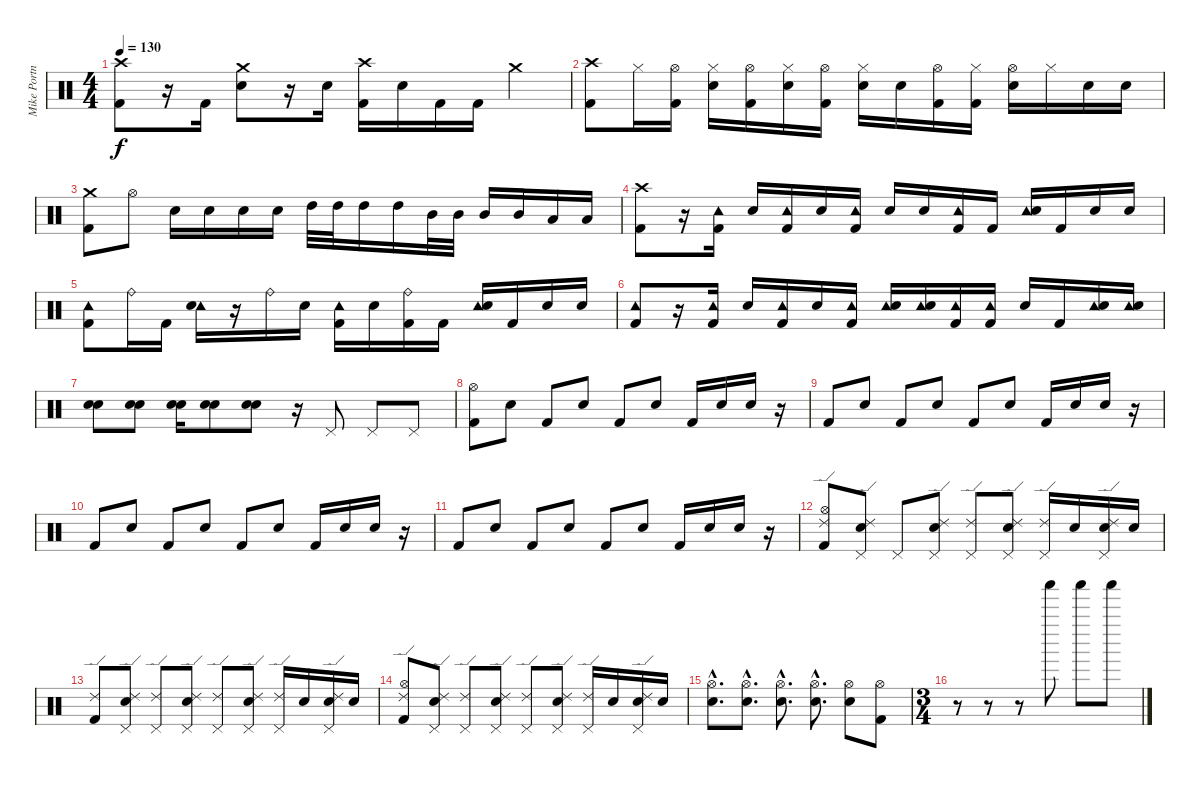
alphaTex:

\track ("Mike Portnoy Drums" "Mike Portn") {instrument percussion}
\staff {score}
\articulation defaults
\ts (4 4)
\tempo 130
\clef neutral
\ks c
("Crash high (hit)" "Kick (hit) 2").8{dy f} r.16 "Kick (hit) 2".16 ("Crash medium (hit)" "Snare (hit) 2").8 r.16 "Snare (hit) 2".16 ("Crash high (hit)" "Kick (hit) 2").16 "Snare (hit) 2".16 "Kick (hit) 2".16 "Kick (hit) 2".16 "Crash medium (hit)".4 |
("Crash high (hit)" "Kick (hit) 2").8 "Hi-Hat (closed)".16 ("Hi-Hat (open)" "Kick (hit) 2").16 ("Hi-Hat (closed)" "Snare (hit) 2").16 ("Hi-Hat (open)" "Kick (hit) 2").16 ("Hi-Hat (closed)" "Snare (hit) 2").16 ("Hi-Hat (open)" "Kick (hit) 2").16 ("Hi-Hat (closed)" "Snare (hit) 2").16 "Snare (hit) 2".16 ("Hi-Hat (open)" "Kick (hit) 2").16 ("Hi-Hat (closed)" "Kick (hit) 2").16 ("Hi-Hat (open)" "Snare (hit) 2").16 "Hi-Hat (closed)".16 "Snare (hit) 2".16 "Snare (hit) 2".16 |
("Crash medium (hit)" "Kick (hit) 2").8 "Hi-Hat (open)".8 "Snare (hit) 2".16 "Snare (hit) 2".16 "Snare (hit) 2".16 "Snare (hit) 2".16 "High Tom (hit)".32 "High Tom (hit)".32 "High Tom (hit)".16 "High Tom (hit)".16 "Mid Tom (hit)".32 "Mid Tom (hit)".32 "Mid Tom (hit)".16 "Mid Tom (hit)".16 "Low Tom (hit)".16 "Low Tom (hit)".16 |
("Crash high (hit)" "Kick (hit) 2").8 r.16 ("Tambourine (hit)" "Kick (hit) 2").16 "Snare (hit) 2".16 ("Tambourine (hit)" "Kick (hit) 2").16 "Snare (hit) 2".16 ("Tambourine (hit)" "Kick (hit) 2").16 "Snare (hit) 2".16 "Snare (hit) 2".16 ("Tambourine (hit)" "Kick (hit) 2").16 "Kick (hit) 2".16 ("Tambourine (hit)" "Snare (hit) 2").16 "Kick (hit) 2".16 "Snare (hit) 2".16 "Snare (hit) 2".16 |
("Tambourine (hit)" "Kick (hit) 2").8 "Ride (bell)".16 "Kick (hit) 2".16 ("Tambourine (hit)" "Snare (hit) 2").16 r.16 "Ride (bell)".16 "Snare (hit) 2".16 ("Tambourine (hit)" "Kick (hit) 2").16 "Snare (hit) 2".16 ("Ride (bell)" "Kick (hit) 2").16 "Kick (hit) 2".16 ("Tambourine (hit)" "Snare (hit) 2").16 "Kick (hit) 2".16 "Snare (hit) 2".16 "Snare (hit) 2".16 |
("Tambourine (hit)" "Kick (hit) 2").8 r.16 ("Tambourine (hit)" "Kick (hit) 2").16 "Snare (hit) 2".16 ("Tambourine (hit)" "Kick (hit) 2").16 "Snare (hit) 2".16 ("Tambourine (hit)" "Kick (hit) 2").16 ("Tambourine (hit)" "Snare (hit) 2").16 ("Tambourine (hit)" "Snare (hit) 2").16 ("Tambourine (hit)" "Kick (hit) 2").16 ("Tambourine (hit)" "Kick (hit) 2").16 "Snare (hit) 2".16 "Kick (hit) 2".16 ("Tambourine (hit)" "Snare (hit) 2").16 ("Tambourine (hit)" "Snare (hit) 2").16 |
("Snare (hit) 2" "Snare (hit) 2").8 ("Snare (hit) 2" "Snare (hit) 2").8 ("Snare (hit) 2" "Snare (hit) 2").16 ("Snare (hit) 2" "Snare (hit) 2").8 ("Snare (hit) 2" "Snare (hit) 2").8 r.16 "Pedal Hi-Hat (hit)".8 "Pedal Hi-Hat (hit)".8 "Pedal Hi-Hat (hit)".8 |
("Kick (hit) 2" "Hi-Hat (open)").8 "Snare (hit) 2".8 "Kick (hit) 2".8 "Snare (hit) 2".8 "Kick (hit) 2".8 "Snare (hit) 2".8 "Kick (hit) 2".16 "Snare (hit) 2".16 "Snare (hit) 2".16 r.16 |
"Kick (hit) 2".8 "Snare (hit) 2".8 "Kick (hit) 2".8 "Snare (hit) 2".8 "Kick (hit) 2".8 "Snare (hit) 2".8 "Kick (hit) 2".16 "Snare (hit) 2".16 "Snare (hit) 2".16 r.16 |
"Kick (hit) 2".8 "Snare (hit) 2".8 "Kick (hit) 2".8 "Snare (hit) 2".8 "Kick (hit) 2".8 "Snare (hit) 2".8 "Kick (hit) 2".16 "Snare (hit) 2".16 "Snare (hit) 2".16 r.16 |
"Kick (hit) 2".8 "Snare (hit) 2".8 "Kick (hit) 2".8 "Snare (hit) 2".8 "Kick (hit) 2".8 "Snare (hit) 2".8 "Kick (hit) 2".16 "Snare (hit) 2".16 "Snare (hit) 2".16 r.16 |
("Ride (edge) 2" "Kick (hit) 2" "Hi-Hat (open)").8 ("Pedal Hi-Hat (hit)" "Ride (edge) 2" "Snare (hit) 2").8 "Pedal Hi-Hat (hit)".8 ("Pedal Hi-Hat (hit)" "Ride (edge) 2" "Snare (hit) 2").8 ("Pedal Hi-Hat (hit)" "Ride (edge) 2").8 ("Pedal Hi-Hat (hit)" "Ride (edge) 2" "Snare (hit) 2").8 ("Pedal Hi-Hat (hit)" "Ride (edge) 2").16 "Snare (hit) 2".16 ("Snare (hit) 2" "Pedal Hi-Hat (hit)" "Ride (edge) 2").16 "Snare (hit) 2".16 |
("Ride (edge) 2" "Kick (hit) 2").8 ("Pedal Hi-Hat (hit)" "Ride (edge) 2" "Snare (hit) 2").8 ("Pedal Hi-Hat (hit)" "Ride (edge) 2").8 ("Pedal Hi-Hat (hit)" "Ride (edge) 2" "Snare (hit) 2").8 ("Pedal Hi-Hat (hit)" "Ride (edge) 2").8 ("Pedal Hi-Hat (hit)" "Ride (edge) 2" "Snare (hit) 2").8 ("Pedal Hi-Hat (hit)" "Ride (edge) 2").16 "Snare (hit) 2".16 ("Snare (hit) 2" "Pedal Hi-Hat (hit)" "Ride (edge) 2").16 "Snare (hit) 2".16 |
("Ride (edge) 2" "Kick (hit) 2" "Hi-Hat (open)").8 ("Pedal Hi-Hat (hit)" "Ride (edge) 2" "Snare (hit) 2").8 ("Pedal Hi-Hat (hit)" "Ride (edge) 2").8 ("Pedal Hi-Hat (hit)" "Ride (edge) 2" "Snare (hit) 2").8 ("Pedal Hi-Hat (hit)" "Ride (edge) 2").8 ("Pedal Hi-Hat (hit)" "Ride (edge) 2" "Snare (hit) 2").8 ("Pedal Hi-Hat (hit)" "Ride (edge) 2").16 "Snare (hit) 2".16 ("Snare (hit) 2" "Pedal Hi-Hat (hit)" "Ride (edge) 2").16 "Snare (hit) 2".16 |
("Snare (hit) 2"{hac} "Hi-Hat (open)"{hac}).8{d} ("Hi-Hat (open)"{hac} "Snare (hit) 2"{hac}).8{d} ("Hi-Hat (open)"{hac} "Snare (hit) 2"{hac}).8{d} ("Hi-Hat (open)"{hac} "Snare (hit) 2"{hac}).8{d} ("Hi-Hat (open)" "Snare (hit) 2").8 ("Kick (hit) 2" "Hi-Hat (open)").8 |
\ts (3 4)
r.8 r.8 r.8 "Shaker (hit)".8 "Shaker (hit)".8 "Shaker (hit)".8
